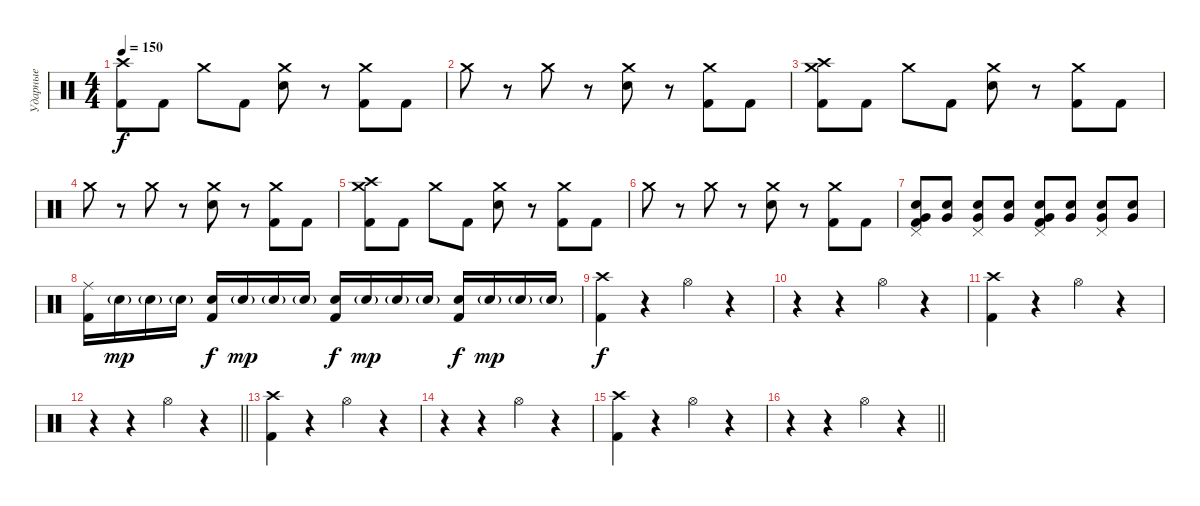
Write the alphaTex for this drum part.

\track ("Ударные" "Ударные") {instrument percussion}
\staff {score}
\articulation defaults
\ts (4 4)
\tempo 150
\clef neutral
\ks c
("Crash high (hit)" "Kick (hit) 2").8{dy f} "Kick (hit) 2".8 "Crash medium (hit)".8 "Kick (hit) 2".8 ("Crash medium (hit)" "Electric Snare (hit)").8 r.8 ("Crash medium (hit)" "Kick (hit) 2").8 "Kick (hit) 2".8 |
"Crash medium (hit)".8 r.8 "Crash medium (hit)".8 r.8 ("Crash medium (hit)" "Electric Snare (hit)").8 r.8 ("Crash medium (hit)" "Kick (hit) 2").8 "Kick (hit) 2".8 |
("Crash high (hit)" "Crash medium (hit)" "Kick (hit) 2").8 "Kick (hit) 2".8 "Crash medium (hit)".8 "Kick (hit) 2".8 ("Crash medium (hit)" "Electric Snare (hit)").8 r.8 ("Crash medium (hit)" "Kick (hit) 2").8 "Kick (hit) 2".8 |
"Crash medium (hit)".8 r.8 "Crash medium (hit)".8 r.8 ("Crash medium (hit)" "Electric Snare (hit)").8 r.8 ("Crash medium (hit)" "Kick (hit) 2").8 "Kick (hit) 2".8 |
("Crash high (hit)" "Crash medium (hit)" "Kick (hit) 2").8 "Kick (hit) 2".8 "Crash medium (hit)".8 "Kick (hit) 2".8 ("Crash medium (hit)" "Electric Snare (hit)").8 r.8 ("Crash medium (hit)" "Kick (hit) 2").8 "Kick (hit) 2".8 |
"Crash medium (hit)".8 r.8 "Crash medium (hit)".8 r.8 ("Crash medium (hit)" "Electric Snare (hit)").8 r.8 ("Crash medium (hit)" "Kick (hit) 2").8 "Kick (hit) 2".8 |
("Pedal Hi-Hat (hit)" "Electric Snare (hit)" "Very Low Tom (hit)" "Kick (hit) 2").8 ("Electric Snare (hit)" "Very Low Tom (hit)").8 ("Pedal Hi-Hat (hit)" "Electric Snare (hit)" "Very Low Tom (hit)").8 ("Electric Snare (hit)" "Very Low Tom (hit)").8 ("Pedal Hi-Hat (hit)" "Electric Snare (hit)" "Very Low Tom (hit)" "Kick (hit) 2").8 ("Electric Snare (hit)" "Very Low Tom (hit)").8 ("Pedal Hi-Hat (hit)" "Electric Snare (hit)" "Very Low Tom (hit)").8 ("Electric Snare (hit)" "Very Low Tom (hit)").8 |
("Ride (middle)" "Kick (hit) 2").16 "Electric Snare (hit)"{g}.16{dy mp} "Electric Snare (hit)"{g}.16 "Electric Snare (hit)"{g}.16 ("Electric Snare (hit)" "Kick (hit) 2").16{dy f} "Electric Snare (hit)"{g}.16{dy mp} "Electric Snare (hit)"{g}.16 "Electric Snare (hit)"{g}.16 ("Electric Snare (hit)" "Kick (hit) 2").16{dy f} "Electric Snare (hit)"{g}.16{dy mp} "Electric Snare (hit)"{g}.16 "Electric Snare (hit)"{g}.16 ("Electric Snare (hit)" "Kick (hit) 2").16{dy f} "Electric Snare (hit)"{g}.16{dy mp} "Electric Snare (hit)"{g}.16 "Electric Snare (hit)"{g}.16 |
("Crash high (hit)" "Kick (hit) 2").4{dy f} r.4 "Hi-Hat (open)".4 r.4 |
r.4 r.4 "Hi-Hat (open)".4 r.4 |
("Crash high (hit)" "Kick (hit) 2").4 r.4 "Hi-Hat (open)".4 r.4 |
\barLineRight lightlight
r.4 r.4 "Hi-Hat (open)".4 r.4 |
("Crash high (hit)" "Kick (hit) 2").4 r.4 "Hi-Hat (open)".4 r.4 |
r.4 r.4 "Hi-Hat (open)".4 r.4 |
("Crash high (hit)" "Kick (hit) 2").4 r.4 "Hi-Hat (open)".4 r.4 |
\barLineRight lightlight
r.4 r.4 "Hi-Hat (open)".4 r.4
